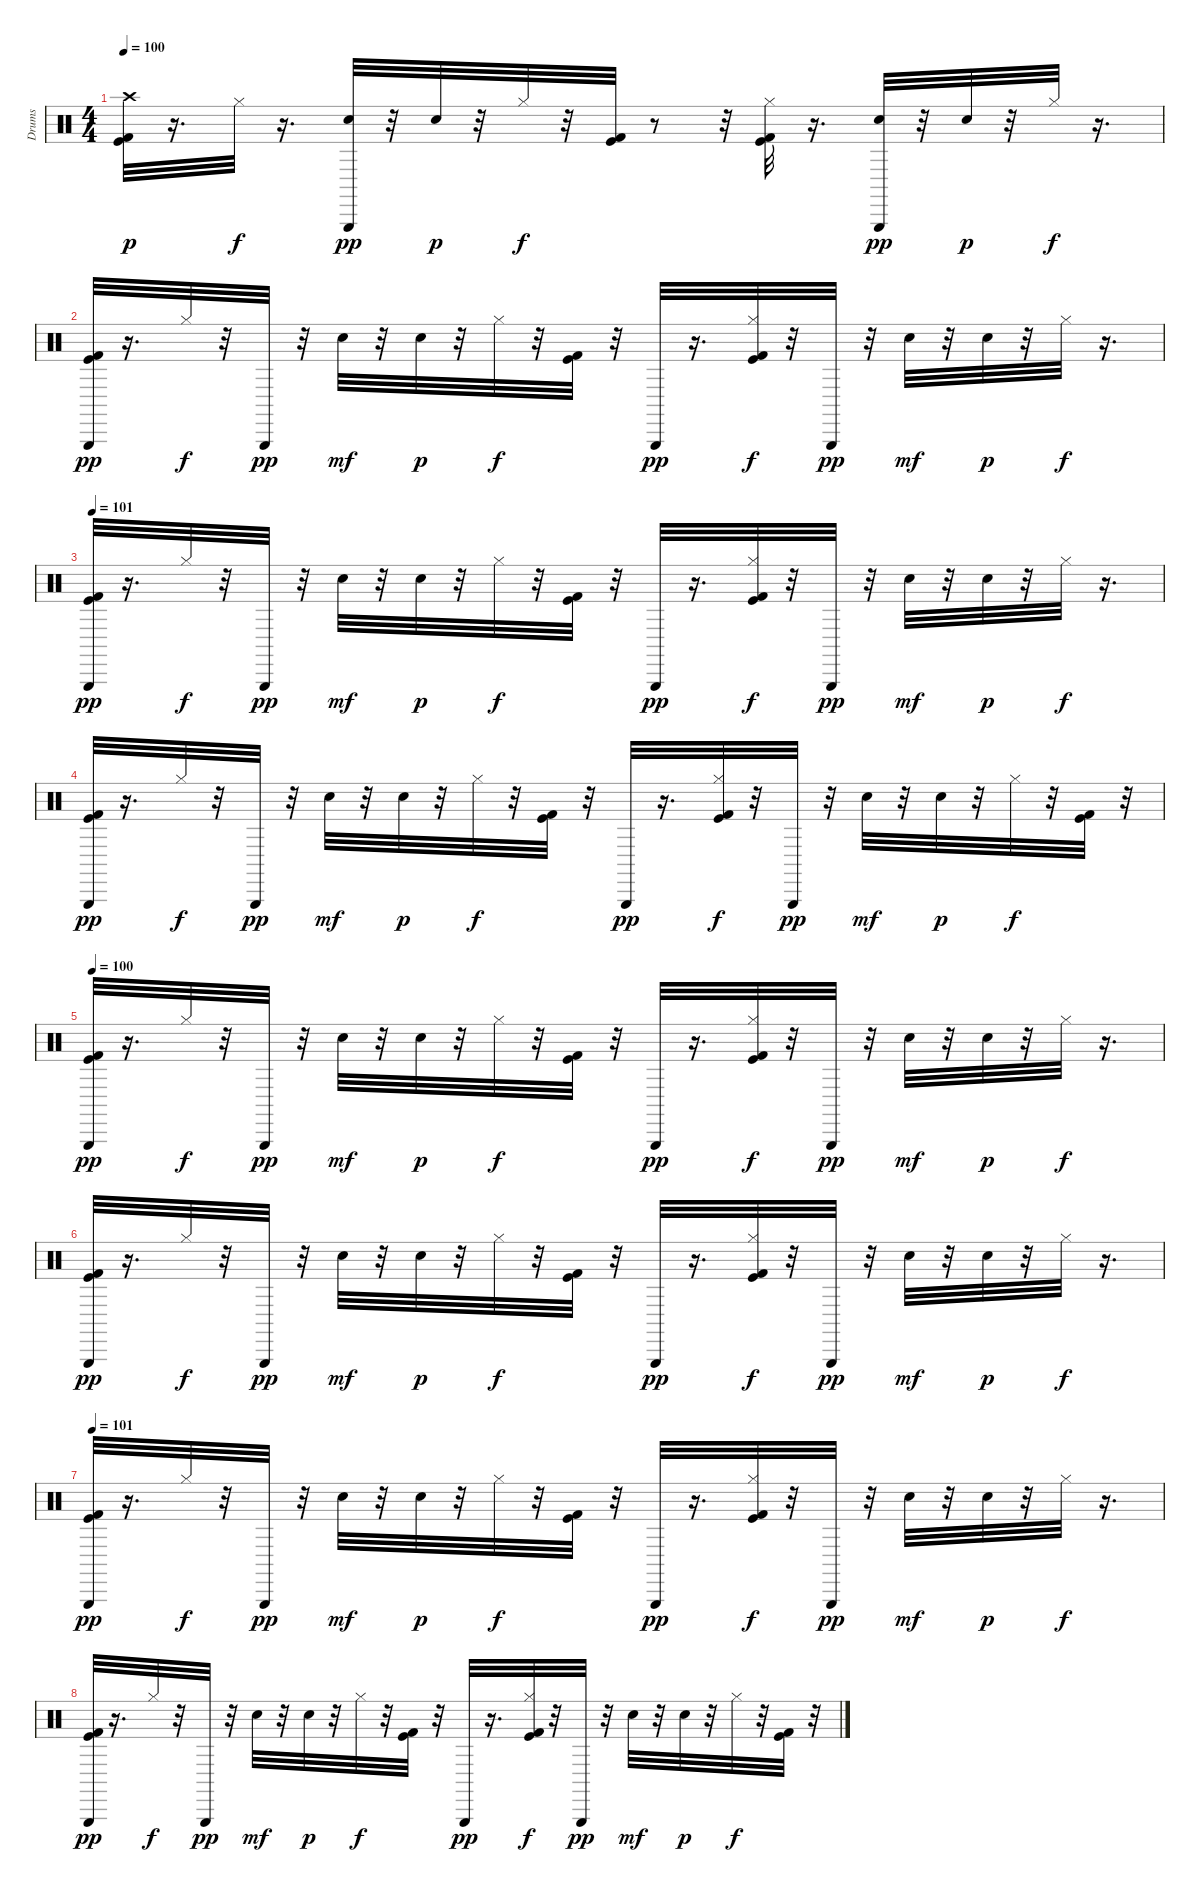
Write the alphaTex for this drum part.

\track ("Drums" "Drums") {instrument percussion}
\staff {score}
\articulation defaults
\ts (4 4)
\tempo 100
\clef neutral
\ks c
("Kick (hit)" "Kick (hit) 2" "Crash high (hit)").32{dy p} r.16{d} "Hi-Hat (closed)".32{dy f} r.16{d} ("Hand Clap (hit)" "Triangle (hit)").32{dy pp} r.32 "Hand Clap (hit)".32{dy p} r.32 "Hi-Hat (closed)".32{dy f} r.32 ("Kick (hit)" "Kick (hit) 2").32 r.8 r.32 ("Kick (hit)" "Kick (hit) 2" "Hi-Hat (closed)").32 r.16{d} ("Hand Clap (hit)" "Triangle (hit)").32{dy pp} r.32 "Hand Clap (hit)".32{dy p} r.32 "Hi-Hat (closed)".32{dy f} r.16{d} |
("Kick (hit)" "Kick (hit) 2" "Triangle (hit)").32{dy pp} r.16{d} "Hi-Hat (closed)".32{dy f} r.32 "Triangle (hit)".32{dy pp} r.32 "Hand Clap (hit)".32{dy mf} r.32 "Hand Clap (hit)".32{dy p} r.32 "Hi-Hat (closed)".32{dy f} r.32 ("Kick (hit)" "Kick (hit) 2").32 r.32 "Triangle (hit)".32{dy pp} r.16{d} ("Kick (hit)" "Kick (hit) 2" "Hi-Hat (closed)").32{dy f} r.32 "Triangle (hit)".32{dy pp} r.32 "Hand Clap (hit)".32{dy mf} r.32 "Hand Clap (hit)".32{dy p} r.32 "Hi-Hat (closed)".32{dy f} r.16{d} |
\tempo 101
("Kick (hit)" "Kick (hit) 2" "Triangle (hit)").32{dy pp} r.16{d} "Hi-Hat (closed)".32{dy f} r.32 "Triangle (hit)".32{dy pp} r.32 "Hand Clap (hit)".32{dy mf} r.32 "Hand Clap (hit)".32{dy p} r.32 "Hi-Hat (closed)".32{dy f} r.32 ("Kick (hit)" "Kick (hit) 2").32 r.32 "Triangle (hit)".32{dy pp} r.16{d} ("Kick (hit)" "Kick (hit) 2" "Hi-Hat (closed)").32{dy f} r.32 "Triangle (hit)".32{dy pp} r.32 "Hand Clap (hit)".32{dy mf} r.32 "Hand Clap (hit)".32{dy p} r.32 "Hi-Hat (closed)".32{dy f} r.16{d} |
("Kick (hit)" "Kick (hit) 2" "Triangle (hit)").32{dy pp} r.16{d} "Hi-Hat (closed)".32{dy f} r.32 "Triangle (hit)".32{dy pp} r.32 "Hand Clap (hit)".32{dy mf} r.32 "Hand Clap (hit)".32{dy p} r.32 "Hi-Hat (closed)".32{dy f} r.32 ("Kick (hit)" "Kick (hit) 2").32 r.32 "Triangle (hit)".32{dy pp} r.16{d} ("Kick (hit)" "Kick (hit) 2" "Hi-Hat (closed)").32{dy f} r.32 "Triangle (hit)".32{dy pp} r.32 "Hand Clap (hit)".32{dy mf} r.32 "Hand Clap (hit)".32{dy p} r.32 "Hi-Hat (closed)".32{dy f} r.32 ("Kick (hit)" "Kick (hit) 2").32 r.32 |
\tempo 100
("Kick (hit)" "Kick (hit) 2" "Triangle (hit)").32{dy pp} r.16{d} "Hi-Hat (closed)".32{dy f} r.32 "Triangle (hit)".32{dy pp} r.32 "Hand Clap (hit)".32{dy mf} r.32 "Hand Clap (hit)".32{dy p} r.32 "Hi-Hat (closed)".32{dy f} r.32 ("Kick (hit)" "Kick (hit) 2").32 r.32 "Triangle (hit)".32{dy pp} r.16{d} ("Kick (hit)" "Kick (hit) 2" "Hi-Hat (closed)").32{dy f} r.32 "Triangle (hit)".32{dy pp} r.32 "Hand Clap (hit)".32{dy mf} r.32 "Hand Clap (hit)".32{dy p} r.32 "Hi-Hat (closed)".32{dy f} r.16{d} |
("Kick (hit)" "Kick (hit) 2" "Triangle (hit)").32{dy pp} r.16{d} "Hi-Hat (closed)".32{dy f} r.32 "Triangle (hit)".32{dy pp} r.32 "Hand Clap (hit)".32{dy mf} r.32 "Hand Clap (hit)".32{dy p} r.32 "Hi-Hat (closed)".32{dy f} r.32 ("Kick (hit)" "Kick (hit) 2").32 r.32 "Triangle (hit)".32{dy pp} r.16{d} ("Kick (hit)" "Kick (hit) 2" "Hi-Hat (closed)").32{dy f} r.32 "Triangle (hit)".32{dy pp} r.32 "Hand Clap (hit)".32{dy mf} r.32 "Hand Clap (hit)".32{dy p} r.32 "Hi-Hat (closed)".32{dy f} r.16{d} |
\tempo 101
("Kick (hit)" "Kick (hit) 2" "Triangle (hit)").32{dy pp} r.16{d} "Hi-Hat (closed)".32{dy f} r.32 "Triangle (hit)".32{dy pp} r.32 "Hand Clap (hit)".32{dy mf} r.32 "Hand Clap (hit)".32{dy p} r.32 "Hi-Hat (closed)".32{dy f} r.32 ("Kick (hit)" "Kick (hit) 2").32 r.32 "Triangle (hit)".32{dy pp} r.16{d} ("Kick (hit)" "Kick (hit) 2" "Hi-Hat (closed)").32{dy f} r.32 "Triangle (hit)".32{dy pp} r.32 "Hand Clap (hit)".32{dy mf} r.32 "Hand Clap (hit)".32{dy p} r.32 "Hi-Hat (closed)".32{dy f} r.16{d} |
("Kick (hit)" "Kick (hit) 2" "Triangle (hit)").32{dy pp} r.16{d} "Hi-Hat (closed)".32{dy f} r.32 "Triangle (hit)".32{dy pp} r.32 "Hand Clap (hit)".32{dy mf} r.32 "Hand Clap (hit)".32{dy p} r.32 "Hi-Hat (closed)".32{dy f} r.32 ("Kick (hit)" "Kick (hit) 2").32 r.32 "Triangle (hit)".32{dy pp} r.16{d} ("Kick (hit)" "Kick (hit) 2" "Hi-Hat (closed)").32{dy f} r.32 "Triangle (hit)".32{dy pp} r.32 "Hand Clap (hit)".32{dy mf} r.32 "Hand Clap (hit)".32{dy p} r.32 "Hi-Hat (closed)".32{dy f} r.32 ("Kick (hit)" "Kick (hit) 2").32 r.32
